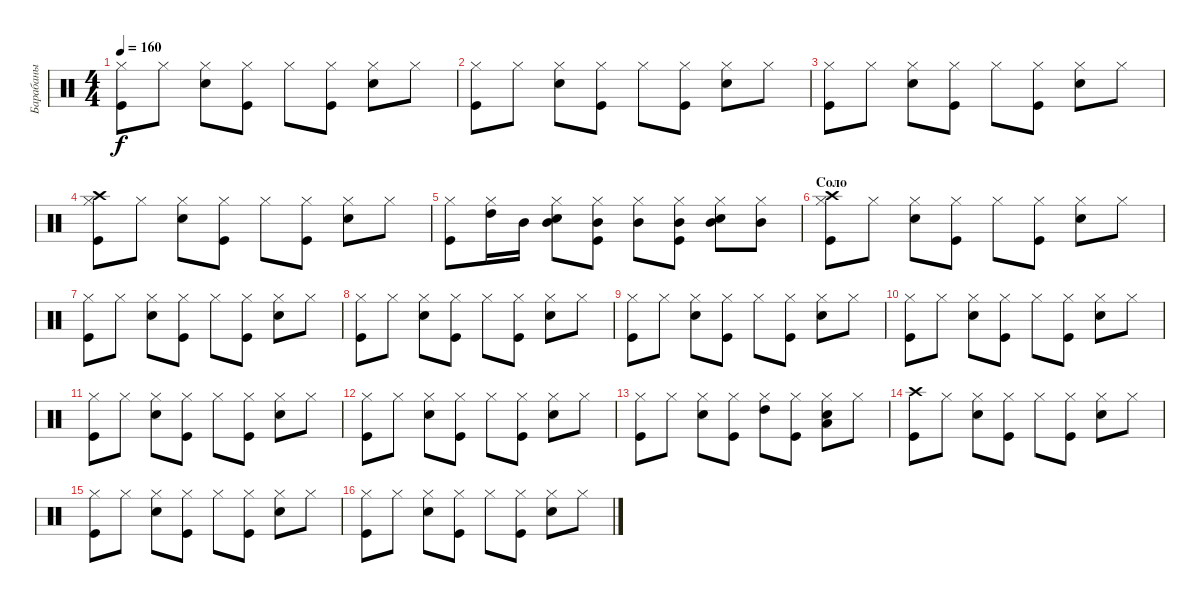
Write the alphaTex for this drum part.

\track ("Барабаны" "Барабаны") {instrument percussion}
\staff {score}
\articulation defaults
\ts (4 4)
\tempo 160
\clef neutral
\ks c
("Kick (hit)" "Hi-Hat (closed)").8{dy f} "Hi-Hat (closed)".8 ("Snare (hit) 2" "Hi-Hat (closed)").8 ("Kick (hit)" "Hi-Hat (closed)").8 "Hi-Hat (closed)".8 ("Kick (hit)" "Hi-Hat (closed)").8 ("Snare (hit) 2" "Hi-Hat (closed)").8 "Hi-Hat (closed)".8 |
("Kick (hit)" "Hi-Hat (closed)").8 "Hi-Hat (closed)".8 ("Snare (hit) 2" "Hi-Hat (closed)").8 ("Kick (hit)" "Hi-Hat (closed)").8 "Hi-Hat (closed)".8 ("Kick (hit)" "Hi-Hat (closed)").8 ("Snare (hit) 2" "Hi-Hat (closed)").8 "Hi-Hat (closed)".8 |
("Kick (hit)" "Hi-Hat (closed)").8 "Hi-Hat (closed)".8 ("Snare (hit) 2" "Hi-Hat (closed)").8 ("Kick (hit)" "Hi-Hat (closed)").8 "Hi-Hat (closed)".8 ("Kick (hit)" "Hi-Hat (closed)").8 ("Snare (hit) 2" "Hi-Hat (closed)").8 "Hi-Hat (closed)".8 |
("Kick (hit)" "Crash high (hit)" "Hi-Hat (closed)").8 "Hi-Hat (closed)".8 ("Snare (hit) 2" "Hi-Hat (closed)").8 ("Kick (hit)" "Hi-Hat (closed)").8 "Hi-Hat (closed)".8 ("Kick (hit)" "Hi-Hat (closed)").8 ("Snare (hit) 2" "Hi-Hat (closed)").8 "Hi-Hat (closed)".8 |
("Kick (hit)" "Hi-Hat (closed)").8 ("High Tom (hit)" "Hi-Hat (closed)").16 "Mid Tom (hit)".16 ("Snare (hit) 2" "Mid Tom (hit)" "Hi-Hat (closed)").8 ("Kick (hit)" "Mid Tom (hit)" "Hi-Hat (closed)").8 ("Mid Tom (hit)" "Hi-Hat (closed)").8 ("Kick (hit)" "Mid Tom (hit)" "Hi-Hat (closed)").8 ("Snare (hit) 2" "Mid Tom (hit)" "Hi-Hat (closed)").8 ("Mid Tom (hit)" "Hi-Hat (closed)").8 |
\section ("" "Соло")
("Kick (hit)" "Crash high (hit)" "Hi-Hat (closed)").8 "Hi-Hat (closed)".8 ("Snare (hit) 2" "Hi-Hat (closed)").8 ("Kick (hit)" "Hi-Hat (closed)").8 "Hi-Hat (closed)".8 ("Kick (hit)" "Hi-Hat (closed)").8 ("Snare (hit) 2" "Hi-Hat (closed)").8 "Hi-Hat (closed)".8 |
("Kick (hit)" "Hi-Hat (closed)").8 "Hi-Hat (closed)".8 ("Snare (hit) 2" "Hi-Hat (closed)").8 ("Kick (hit)" "Hi-Hat (closed)").8 "Hi-Hat (closed)".8 ("Kick (hit)" "Hi-Hat (closed)").8 ("Snare (hit) 2" "Hi-Hat (closed)").8 "Hi-Hat (closed)".8 |
("Kick (hit)" "Hi-Hat (closed)").8 "Hi-Hat (closed)".8 ("Snare (hit) 2" "Hi-Hat (closed)").8 ("Kick (hit)" "Hi-Hat (closed)").8 "Hi-Hat (closed)".8 ("Kick (hit)" "Hi-Hat (closed)").8 ("Snare (hit) 2" "Hi-Hat (closed)").8 "Hi-Hat (closed)".8 |
("Kick (hit)" "Hi-Hat (closed)").8 "Hi-Hat (closed)".8 ("Snare (hit) 2" "Hi-Hat (closed)").8 ("Kick (hit)" "Hi-Hat (closed)").8 "Hi-Hat (closed)".8 ("Kick (hit)" "Hi-Hat (closed)").8 ("Snare (hit) 2" "Hi-Hat (closed)").8 "Hi-Hat (closed)".8 |
("Kick (hit)" "Hi-Hat (closed)").8 "Hi-Hat (closed)".8 ("Snare (hit) 2" "Hi-Hat (closed)").8 ("Kick (hit)" "Hi-Hat (closed)").8 "Hi-Hat (closed)".8 ("Kick (hit)" "Hi-Hat (closed)").8 ("Snare (hit) 2" "Hi-Hat (closed)").8 "Hi-Hat (closed)".8 |
("Kick (hit)" "Hi-Hat (closed)").8 "Hi-Hat (closed)".8 ("Snare (hit) 2" "Hi-Hat (closed)").8 ("Kick (hit)" "Hi-Hat (closed)").8 "Hi-Hat (closed)".8 ("Kick (hit)" "Hi-Hat (closed)").8 ("Snare (hit) 2" "Hi-Hat (closed)").8 "Hi-Hat (closed)".8 |
("Kick (hit)" "Hi-Hat (closed)").8 "Hi-Hat (closed)".8 ("Snare (hit) 2" "Hi-Hat (closed)").8 ("Kick (hit)" "Hi-Hat (closed)").8 "Hi-Hat (closed)".8 ("Kick (hit)" "Hi-Hat (closed)").8 ("Snare (hit) 2" "Hi-Hat (closed)").8 "Hi-Hat (closed)".8 |
("Kick (hit)" "Hi-Hat (closed)").8 "Hi-Hat (closed)".8 ("Snare (hit) 2" "Hi-Hat (closed)").8 ("Kick (hit)" "Hi-Hat (closed)").8 ("High Tom (hit)" "Hi-Hat (closed)").8 ("Kick (hit)" "Hi-Hat (closed)").8 ("Snare (hit) 2" "Low Tom (hit)" "Hi-Hat (closed)").8 "Hi-Hat (closed)".8 |
("Kick (hit)" "Crash high (hit)").8 "Hi-Hat (closed)".8 ("Snare (hit) 2" "Hi-Hat (closed)").8 ("Kick (hit)" "Hi-Hat (closed)").8 "Hi-Hat (closed)".8 ("Kick (hit)" "Hi-Hat (closed)").8 ("Snare (hit) 2" "Hi-Hat (closed)").8 "Hi-Hat (closed)".8 |
("Kick (hit)" "Hi-Hat (closed)").8 "Hi-Hat (closed)".8 ("Snare (hit) 2" "Hi-Hat (closed)").8 ("Kick (hit)" "Hi-Hat (closed)").8 "Hi-Hat (closed)".8 ("Kick (hit)" "Hi-Hat (closed)").8 ("Snare (hit) 2" "Hi-Hat (closed)").8 "Hi-Hat (closed)".8 |
("Kick (hit)" "Hi-Hat (closed)").8 "Hi-Hat (closed)".8 ("Snare (hit) 2" "Hi-Hat (closed)").8 ("Kick (hit)" "Hi-Hat (closed)").8 "Hi-Hat (closed)".8 ("Kick (hit)" "Hi-Hat (closed)").8 ("Snare (hit) 2" "Hi-Hat (closed)").8 "Hi-Hat (closed)".8
